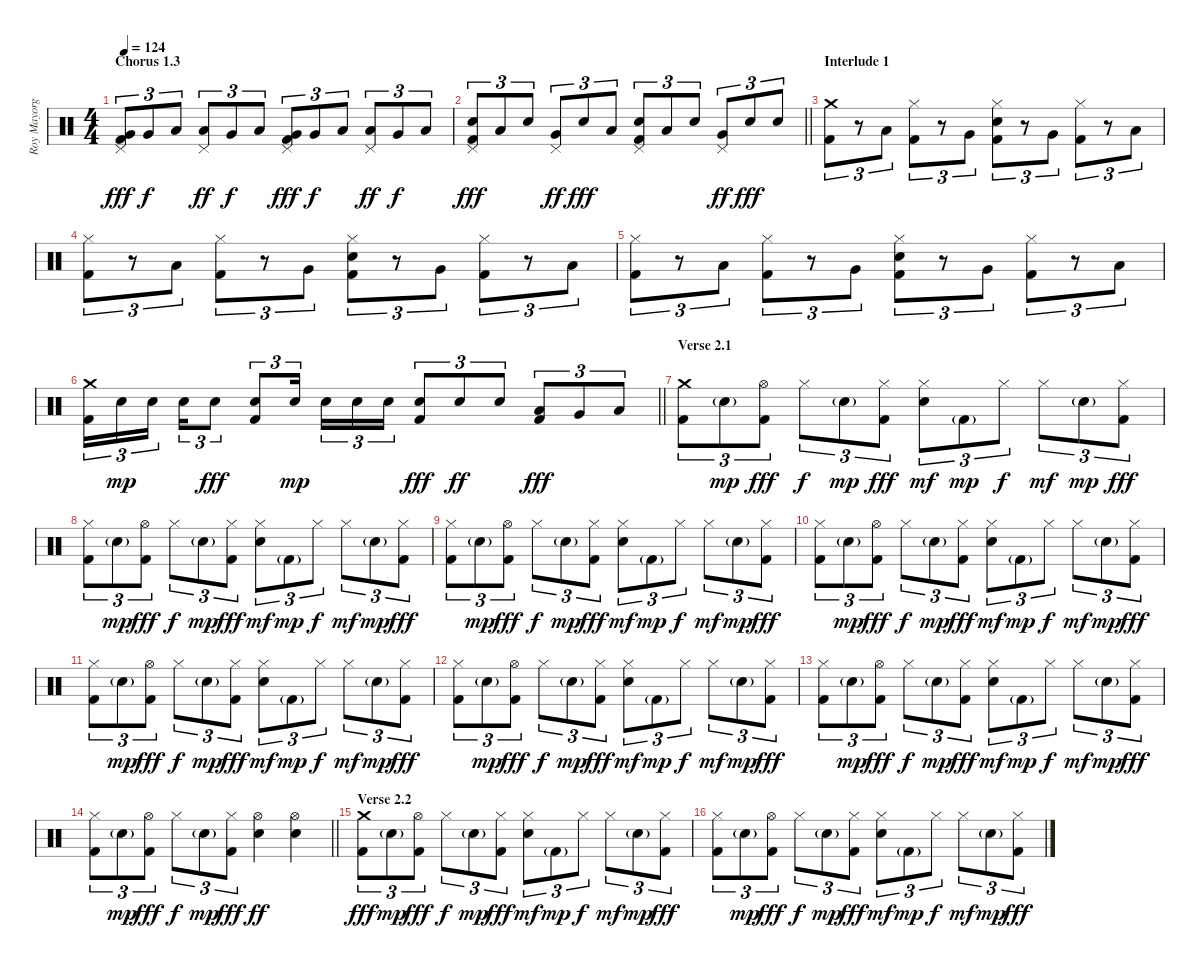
\track ("Roy Mayorga" "Roy Mayorg") {instrument percussion}
\staff {score}
\articulation defaults
\ts (4 4)
\section ("" "Chorus 1.3")
\tempo 124
\clef neutral
\ks c
("Very Low Tom (hit)" "Pedal Hi-Hat (hit)" "Kick (hit) 2").8{tu (3 2) dy fff} "Very Low Tom (hit)".8{tu (3 2) dy f} "Low Floor Tom (hit)".8{tu (3 2)} ("Low Tom (hit)" "Pedal Hi-Hat (hit)").8{tu (3 2) dy ff} "Very Low Tom (hit)".8{tu (3 2) dy f} "Low Floor Tom (hit)".8{tu (3 2)} ("Very Low Tom (hit)" "Pedal Hi-Hat (hit)" "Kick (hit) 2").8{tu (3 2) dy fff} "Very Low Tom (hit)".8{tu (3 2) dy f} "Low Floor Tom (hit)".8{tu (3 2)} ("Low Tom (hit)" "Pedal Hi-Hat (hit)").8{tu (3 2) dy ff} "Very Low Tom (hit)".8{tu (3 2) dy f} "Low Floor Tom (hit)".8{tu (3 2)} |
\barLineRight lightlight
("Electric Snare (hit)" "Pedal Hi-Hat (hit)" "Kick (hit) 2").8{tu (3 2) dy fff} "Low Tom (hit)".8{tu (3 2)} "Electric Snare (hit)".8{tu (3 2)} ("Very Low Tom (hit)" "Pedal Hi-Hat (hit)").8{tu (3 2) dy ff} "Electric Snare (hit)".8{tu (3 2) dy fff} "Low Floor Tom (hit)".8{tu (3 2)} ("Electric Snare (hit)" "Pedal Hi-Hat (hit)" "Kick (hit) 2").8{tu (3 2)} "Low Tom (hit)".8{tu (3 2)} "Electric Snare (hit)".8{tu (3 2)} ("Very Low Tom (hit)" "Pedal Hi-Hat (hit)").8{tu (3 2) dy ff} "Electric Snare (hit)".8{tu (3 2) dy fff} "Electric Snare (hit)".8{tu (3 2)} |
\section ("" "Interlude 1")
("Crash medium (hit)" "Kick (hit) 2").8{tu (3 2)} r.8{tu (3 2)} "Low Tom (hit)".8{tu (3 2)} ("Hi-Hat (closed)" "Kick (hit) 2").8{tu (3 2)} r.8{tu (3 2)} "Very Low Tom (hit)".8{tu (3 2)} ("Hi-Hat (closed)" "Electric Snare (hit)" "Kick (hit) 2").8{tu (3 2)} r.8{tu (3 2)} "Very Low Tom (hit)".8{tu (3 2)} ("Hi-Hat (closed)" "Kick (hit) 2").8{tu (3 2)} r.8{tu (3 2)} "Low Floor Tom (hit)".8{tu (3 2)} |
("Hi-Hat (closed)" "Kick (hit) 2").8{tu (3 2)} r.8{tu (3 2)} "Low Tom (hit)".8{tu (3 2)} ("Hi-Hat (closed)" "Kick (hit) 2").8{tu (3 2)} r.8{tu (3 2)} "Very Low Tom (hit)".8{tu (3 2)} ("Hi-Hat (closed)" "Electric Snare (hit)" "Kick (hit) 2").8{tu (3 2)} r.8{tu (3 2)} "Very Low Tom (hit)".8{tu (3 2)} ("Hi-Hat (closed)" "Kick (hit) 2").8{tu (3 2)} r.8{tu (3 2)} "Low Floor Tom (hit)".8{tu (3 2)} |
("Hi-Hat (closed)" "Kick (hit) 2").8{tu (3 2)} r.8{tu (3 2)} "Low Tom (hit)".8{tu (3 2)} ("Hi-Hat (closed)" "Kick (hit) 2").8{tu (3 2)} r.8{tu (3 2)} "Very Low Tom (hit)".8{tu (3 2)} ("Hi-Hat (closed)" "Electric Snare (hit)" "Kick (hit) 2").8{tu (3 2)} r.8{tu (3 2)} "Very Low Tom (hit)".8{tu (3 2)} ("Hi-Hat (closed)" "Kick (hit) 2").8{tu (3 2)} r.8{tu (3 2)} "Low Floor Tom (hit)".8{tu (3 2)} |
\barLineRight lightlight
("Crash medium (hit)" "Kick (hit) 2").16{tu (3 2)} "Electric Snare (hit)".16{tu (3 2) dy mp} "Electric Snare (hit)".16{tu (3 2) beam splitsecondary} "Electric Snare (hit)".16{tu (3 2)} "Electric Snare (hit)".8{tu (3 2) dy fff} ("Electric Snare (hit)" "Kick (hit) 2").8{tu (3 2)} "Electric Snare (hit)".16{tu (3 2) dy mp beam splitsecondary} "Electric Snare (hit)".16{tu (3 2)} "Electric Snare (hit)".16{tu (3 2)} "Electric Snare (hit)".16{tu (3 2)} ("Electric Snare (hit)" "Kick (hit) 2").8{tu (3 2) dy fff} "Electric Snare (hit)".8{tu (3 2) dy ff} "Electric Snare (hit)".8{tu (3 2)} ("Low Tom (hit)" "Kick (hit) 2").8{tu (3 2) dy fff} "Very Low Tom (hit)".8{tu (3 2)} "Low Floor Tom (hit)".8{tu (3 2)} |
\section ("" "Verse 2.1")
("Crash medium (hit)" "Kick (hit) 2").8{tu (3 2)} "Electric Snare (hit)"{g}.8{tu (3 2) dy mp} ("Hi-Hat (open)" "Kick (hit) 2").8{tu (3 2) dy fff} "Hi-Hat (closed)".8{tu (3 2) dy f} "Electric Snare (hit)"{g}.8{tu (3 2) dy mp} ("Hi-Hat (closed)" "Kick (hit) 2").8{tu (3 2) dy fff} ("Hi-Hat (closed)" "Electric Snare (hit)").8{tu (3 2) dy mf} "Kick (hit) 2"{g}.8{tu (3 2) dy mp} "Hi-Hat (closed)".8{tu (3 2) dy f} "Hi-Hat (closed)".8{tu (3 2) dy mf} "Electric Snare (hit)"{g}.8{tu (3 2) dy mp} ("Hi-Hat (closed)" "Kick (hit) 2").8{tu (3 2) dy fff} |
("Hi-Hat (closed)" "Kick (hit) 2").8{tu (3 2)} "Electric Snare (hit)"{g}.8{tu (3 2) dy mp} ("Hi-Hat (open)" "Kick (hit) 2").8{tu (3 2) dy fff} "Hi-Hat (closed)".8{tu (3 2) dy f} "Electric Snare (hit)"{g}.8{tu (3 2) dy mp} ("Hi-Hat (closed)" "Kick (hit) 2").8{tu (3 2) dy fff} ("Hi-Hat (closed)" "Electric Snare (hit)").8{tu (3 2) dy mf} "Kick (hit) 2"{g}.8{tu (3 2) dy mp} "Hi-Hat (closed)".8{tu (3 2) dy f} "Hi-Hat (closed)".8{tu (3 2) dy mf} "Electric Snare (hit)"{g}.8{tu (3 2) dy mp} ("Hi-Hat (closed)" "Kick (hit) 2").8{tu (3 2) dy fff} |
("Hi-Hat (closed)" "Kick (hit) 2").8{tu (3 2)} "Electric Snare (hit)"{g}.8{tu (3 2) dy mp} ("Hi-Hat (open)" "Kick (hit) 2").8{tu (3 2) dy fff} "Hi-Hat (closed)".8{tu (3 2) dy f} "Electric Snare (hit)"{g}.8{tu (3 2) dy mp} ("Hi-Hat (closed)" "Kick (hit) 2").8{tu (3 2) dy fff} ("Hi-Hat (closed)" "Electric Snare (hit)").8{tu (3 2) dy mf} "Kick (hit) 2"{g}.8{tu (3 2) dy mp} "Hi-Hat (closed)".8{tu (3 2) dy f} "Hi-Hat (closed)".8{tu (3 2) dy mf} "Electric Snare (hit)"{g}.8{tu (3 2) dy mp} ("Hi-Hat (closed)" "Kick (hit) 2").8{tu (3 2) dy fff} |
("Hi-Hat (closed)" "Kick (hit) 2").8{tu (3 2)} "Electric Snare (hit)"{g}.8{tu (3 2) dy mp} ("Hi-Hat (open)" "Kick (hit) 2").8{tu (3 2) dy fff} "Hi-Hat (closed)".8{tu (3 2) dy f} "Electric Snare (hit)"{g}.8{tu (3 2) dy mp} ("Hi-Hat (closed)" "Kick (hit) 2").8{tu (3 2) dy fff} ("Hi-Hat (closed)" "Electric Snare (hit)").8{tu (3 2) dy mf} "Kick (hit) 2"{g}.8{tu (3 2) dy mp} "Hi-Hat (closed)".8{tu (3 2) dy f} "Hi-Hat (closed)".8{tu (3 2) dy mf} "Electric Snare (hit)"{g}.8{tu (3 2) dy mp} ("Hi-Hat (closed)" "Kick (hit) 2").8{tu (3 2) dy fff} |
("Hi-Hat (closed)" "Kick (hit) 2").8{tu (3 2)} "Electric Snare (hit)"{g}.8{tu (3 2) dy mp} ("Hi-Hat (open)" "Kick (hit) 2").8{tu (3 2) dy fff} "Hi-Hat (closed)".8{tu (3 2) dy f} "Electric Snare (hit)"{g}.8{tu (3 2) dy mp} ("Hi-Hat (closed)" "Kick (hit) 2").8{tu (3 2) dy fff} ("Hi-Hat (closed)" "Electric Snare (hit)").8{tu (3 2) dy mf} "Kick (hit) 2"{g}.8{tu (3 2) dy mp} "Hi-Hat (closed)".8{tu (3 2) dy f} "Hi-Hat (closed)".8{tu (3 2) dy mf} "Electric Snare (hit)"{g}.8{tu (3 2) dy mp} ("Hi-Hat (closed)" "Kick (hit) 2").8{tu (3 2) dy fff} |
("Hi-Hat (closed)" "Kick (hit) 2").8{tu (3 2)} "Electric Snare (hit)"{g}.8{tu (3 2) dy mp} ("Hi-Hat (open)" "Kick (hit) 2").8{tu (3 2) dy fff} "Hi-Hat (closed)".8{tu (3 2) dy f} "Electric Snare (hit)"{g}.8{tu (3 2) dy mp} ("Hi-Hat (closed)" "Kick (hit) 2").8{tu (3 2) dy fff} ("Hi-Hat (closed)" "Electric Snare (hit)").8{tu (3 2) dy mf} "Kick (hit) 2"{g}.8{tu (3 2) dy mp} "Hi-Hat (closed)".8{tu (3 2) dy f} "Hi-Hat (closed)".8{tu (3 2) dy mf} "Electric Snare (hit)"{g}.8{tu (3 2) dy mp} ("Hi-Hat (closed)" "Kick (hit) 2").8{tu (3 2) dy fff} |
("Hi-Hat (closed)" "Kick (hit) 2").8{tu (3 2)} "Electric Snare (hit)"{g}.8{tu (3 2) dy mp} ("Hi-Hat (open)" "Kick (hit) 2").8{tu (3 2) dy fff} "Hi-Hat (closed)".8{tu (3 2) dy f} "Electric Snare (hit)"{g}.8{tu (3 2) dy mp} ("Hi-Hat (closed)" "Kick (hit) 2").8{tu (3 2) dy fff} ("Hi-Hat (closed)" "Electric Snare (hit)").8{tu (3 2) dy mf} "Kick (hit) 2"{g}.8{tu (3 2) dy mp} "Hi-Hat (closed)".8{tu (3 2) dy f} "Hi-Hat (closed)".8{tu (3 2) dy mf} "Electric Snare (hit)"{g}.8{tu (3 2) dy mp} ("Hi-Hat (closed)" "Kick (hit) 2").8{tu (3 2) dy fff} |
\barLineRight lightlight
("Hi-Hat (closed)" "Kick (hit) 2").8{tu (3 2)} "Electric Snare (hit)"{g}.8{tu (3 2) dy mp} ("Hi-Hat (open)" "Kick (hit) 2").8{tu (3 2) dy fff} "Hi-Hat (closed)".8{tu (3 2) dy f} "Electric Snare (hit)"{g}.8{tu (3 2) dy mp} ("Hi-Hat (closed)" "Kick (hit) 2").8{tu (3 2) dy fff} ("Hi-Hat (open)" "Electric Snare (hit)").4{dy ff} ("Hi-Hat (open)" "Electric Snare (hit)").4 |
\section ("" "Verse 2.2")
("Crash medium (hit)" "Kick (hit) 2").8{tu (3 2) dy fff} "Electric Snare (hit)"{g}.8{tu (3 2) dy mp} ("Hi-Hat (open)" "Kick (hit) 2").8{tu (3 2) dy fff} "Hi-Hat (closed)".8{tu (3 2) dy f} "Electric Snare (hit)"{g}.8{tu (3 2) dy mp} ("Hi-Hat (closed)" "Kick (hit) 2").8{tu (3 2) dy fff} ("Hi-Hat (closed)" "Electric Snare (hit)").8{tu (3 2) dy mf} "Kick (hit) 2"{g}.8{tu (3 2) dy mp} "Hi-Hat (closed)".8{tu (3 2) dy f} "Hi-Hat (closed)".8{tu (3 2) dy mf} "Electric Snare (hit)"{g}.8{tu (3 2) dy mp} ("Hi-Hat (closed)" "Kick (hit) 2").8{tu (3 2) dy fff} |
("Hi-Hat (closed)" "Kick (hit) 2").8{tu (3 2)} "Electric Snare (hit)"{g}.8{tu (3 2) dy mp} ("Hi-Hat (open)" "Kick (hit) 2").8{tu (3 2) dy fff} "Hi-Hat (closed)".8{tu (3 2) dy f} "Electric Snare (hit)"{g}.8{tu (3 2) dy mp} ("Hi-Hat (closed)" "Kick (hit) 2").8{tu (3 2) dy fff} ("Hi-Hat (closed)" "Electric Snare (hit)").8{tu (3 2) dy mf} "Kick (hit) 2"{g}.8{tu (3 2) dy mp} "Hi-Hat (closed)".8{tu (3 2) dy f} "Hi-Hat (closed)".8{tu (3 2) dy mf} "Electric Snare (hit)"{g}.8{tu (3 2) dy mp} ("Hi-Hat (closed)" "Kick (hit) 2").8{tu (3 2) dy fff}
